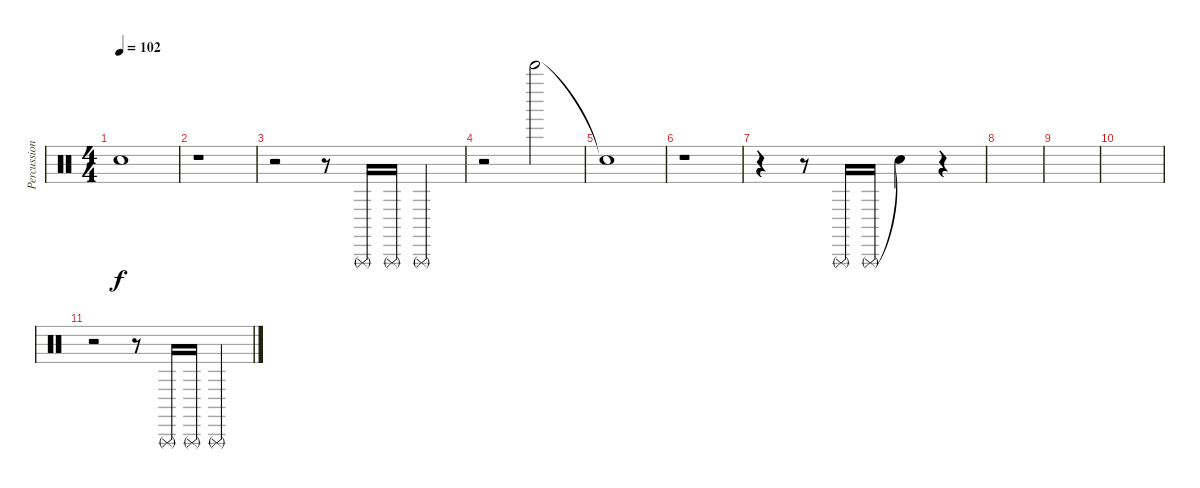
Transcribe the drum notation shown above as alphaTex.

\track ("Percussion" "Percussion") {instrument percussion}
\staff {score}
\articulation defaults
\ts (4 4)
\tempo 102
\clef neutral
\ks c "Snare (hit)"{t}.1{dy f}
|
r.1 |
r.2 r.8 "Triangle (rnute)".16 "Triangle (rnute)".16 "Triangle (rnute)".4 |
r.2 "Bell Tree (hit)".2 |
"Snare (hit)"{t}.1 |
r.1 |
r.4 r.8 "Triangle (rnute)".16 "Triangle (rnute)".16 "Snare (hit)"{t}.4 r.4 |
|
|
|
r.2 r.8 "Triangle (rnute)".16 "Triangle (rnute)".16 "Triangle (rnute)".4
